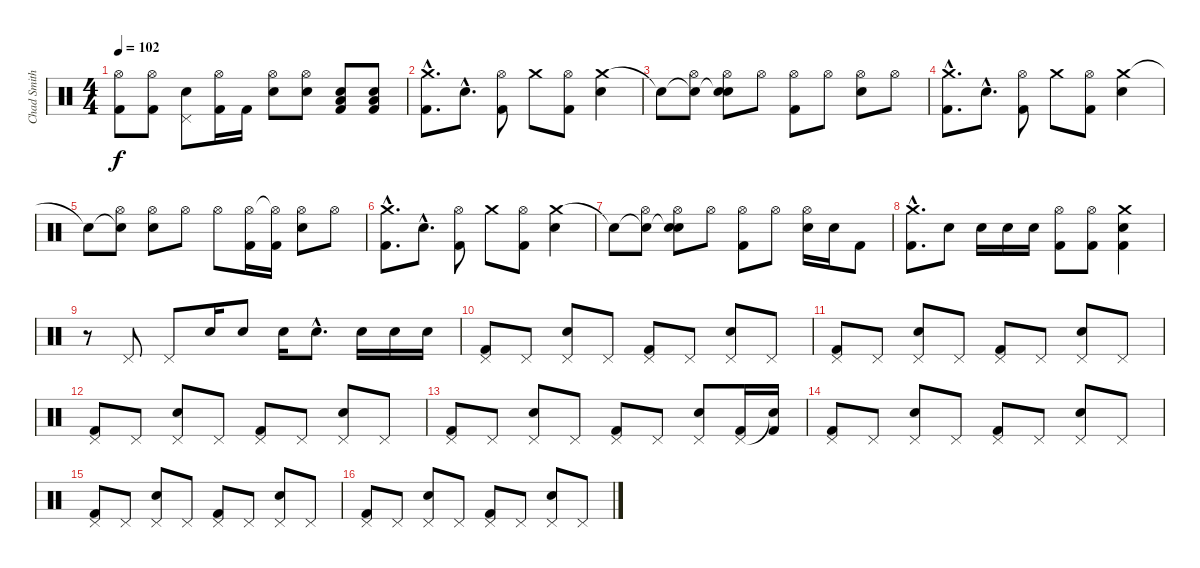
\track ("Chad Smith (Batterie)" "Chad Smith") {instrument percussion}
\staff {score}
\articulation defaults
\ts (4 4)
\tempo 102
\clef neutral
\ks c
("Hi-Hat (open)" "Kick (hit) 2").8{dy f} ("Hi-Hat (open)" "Kick (hit) 2").8 ("Pedal Hi-Hat (hit)" "Electric Snare (hit)").8 ("Hi-Hat (open)" "Kick (hit) 2").16 "Kick (hit) 2".16 ("Hi-Hat (open)" "Electric Snare (hit)").8 ("Hi-Hat (open)" "Electric Snare (hit)").8 ("Low Tom (hit)" "Electric Snare (hit)" "Kick (hit) 2").8 ("Low Tom (hit)" "Electric Snare (hit)" "Kick (hit) 2").8 |
("Crash medium (hit)"{hac} "Kick (hit) 2"{hac}).8{d} "Electric Snare (hit)"{hac}.8{d} ("Hi-Hat (open)" "Kick (hit) 2").8 "Crash medium (hit)".8 ("Hi-Hat (open)" "Kick (hit) 2").8 ("Crash medium (hit)" "Electric Snare (hit)").4 |
"Snare (hit)"{t}.8 ("Snare (hit)"{t} "Hi-Hat (open)").8 ("Snare (hit)"{t} "Hi-Hat (open)" "Electric Snare (hit)").8 "Hi-Hat (open)".8 ("Hi-Hat (open)" "Kick (hit) 2").8 "Hi-Hat (open)".8 ("Hi-Hat (open)" "Electric Snare (hit)").8 "Hi-Hat (open)".8 |
("Crash medium (hit)"{hac} "Kick (hit) 2"{hac}).8{d} "Electric Snare (hit)"{hac}.8{d} ("Hi-Hat (open)" "Kick (hit) 2").8 "Crash medium (hit)".8 ("Hi-Hat (open)" "Kick (hit) 2").8 ("Crash medium (hit)" "Electric Snare (hit)").4 |
"Snare (hit)"{t}.8 ("Snare (hit)"{t} "Hi-Hat (open)").8 ("Hi-Hat (open)" "Electric Snare (hit)").8 "Hi-Hat (open)".8 "Hi-Hat (open)".8 ("Hi-Hat (open)" "Kick (hit) 2").16 ("Hi-Hat (open)"{t} "Kick (hit) 2").16 ("Hi-Hat (open)" "Electric Snare (hit)").8 "Hi-Hat (open)".8 |
("Crash medium (hit)"{hac} "Kick (hit) 2"{hac}).8{d} "Electric Snare (hit)"{hac}.8{d} ("Hi-Hat (open)" "Kick (hit) 2").8 "Crash medium (hit)".8 ("Hi-Hat (open)" "Kick (hit) 2").8 ("Crash medium (hit)" "Electric Snare (hit)").4 |
"Snare (hit)"{t}.8 ("Snare (hit)"{t} "Hi-Hat (open)").8 ("Snare (hit)"{t} "Hi-Hat (open)" "Electric Snare (hit)").8 "Hi-Hat (open)".8 ("Hi-Hat (open)" "Kick (hit) 2").8 "Hi-Hat (open)".8 ("Hi-Hat (open)" "Electric Snare (hit)").16 "Electric Snare (hit)".16 "Kick (hit) 2".8 |
("Crash medium (hit)"{hac} "Kick (hit) 2"{hac}).8{d} "Electric Snare (hit)".8 "Electric Snare (hit)".16 "Electric Snare (hit)".16 "Electric Snare (hit)".16 ("Hi-Hat (open)" "Kick (hit) 2").8 ("Hi-Hat (open)" "Kick (hit) 2").8 ("Crash medium (hit)" "Electric Snare (hit)" "Kick (hit) 2").4 |
r.8 "Pedal Hi-Hat (hit)".8 "Pedal Hi-Hat (hit)".8 "Electric Snare (hit)".16 "Electric Snare (hit)".8 "Electric Snare (hit)".16 "Electric Snare (hit)"{hac}.8{d} "Electric Snare (hit)".16 "Electric Snare (hit)".16 "Electric Snare (hit)".16 |
("Pedal Hi-Hat (hit)" "Kick (hit) 2").8 "Pedal Hi-Hat (hit)".8 ("Pedal Hi-Hat (hit)" "Electric Snare (hit)").8 "Pedal Hi-Hat (hit)".8 ("Pedal Hi-Hat (hit)" "Kick (hit) 2").8 "Pedal Hi-Hat (hit)".8 ("Pedal Hi-Hat (hit)" "Electric Snare (hit)").8 "Pedal Hi-Hat (hit)".8 |
("Pedal Hi-Hat (hit)" "Kick (hit) 2").8 "Pedal Hi-Hat (hit)".8 ("Pedal Hi-Hat (hit)" "Electric Snare (hit)").8 "Pedal Hi-Hat (hit)".8 ("Pedal Hi-Hat (hit)" "Kick (hit) 2").8 "Pedal Hi-Hat (hit)".8 ("Pedal Hi-Hat (hit)" "Electric Snare (hit)").8 "Pedal Hi-Hat (hit)".8 |
("Pedal Hi-Hat (hit)" "Kick (hit) 2").8 "Pedal Hi-Hat (hit)".8 ("Pedal Hi-Hat (hit)" "Electric Snare (hit)").8 "Pedal Hi-Hat (hit)".8 ("Pedal Hi-Hat (hit)" "Kick (hit) 2").8 "Pedal Hi-Hat (hit)".8 ("Pedal Hi-Hat (hit)" "Electric Snare (hit)").8 "Pedal Hi-Hat (hit)".8 |
("Pedal Hi-Hat (hit)" "Kick (hit) 2").8 "Pedal Hi-Hat (hit)".8 ("Pedal Hi-Hat (hit)" "Electric Snare (hit)").8 "Pedal Hi-Hat (hit)".8 ("Pedal Hi-Hat (hit)" "Kick (hit) 2").8 "Pedal Hi-Hat (hit)".8 ("Pedal Hi-Hat (hit)" "Electric Snare (hit)").8 ("Pedal Hi-Hat (hit)" "Kick (hit) 2").16 ("Snare (hit)"{t} "Kick (hit) 2").16 |
("Pedal Hi-Hat (hit)" "Kick (hit) 2").8 "Pedal Hi-Hat (hit)".8 ("Pedal Hi-Hat (hit)" "Electric Snare (hit)").8 "Pedal Hi-Hat (hit)".8 ("Pedal Hi-Hat (hit)" "Kick (hit) 2").8 "Pedal Hi-Hat (hit)".8 ("Pedal Hi-Hat (hit)" "Electric Snare (hit)").8 "Pedal Hi-Hat (hit)".8 |
("Pedal Hi-Hat (hit)" "Kick (hit) 2").8 "Pedal Hi-Hat (hit)".8 ("Pedal Hi-Hat (hit)" "Electric Snare (hit)").8 "Pedal Hi-Hat (hit)".8 ("Pedal Hi-Hat (hit)" "Kick (hit) 2").8 "Pedal Hi-Hat (hit)".8 ("Pedal Hi-Hat (hit)" "Electric Snare (hit)").8 "Pedal Hi-Hat (hit)".8 |
("Pedal Hi-Hat (hit)" "Kick (hit) 2").8 "Pedal Hi-Hat (hit)".8 ("Pedal Hi-Hat (hit)" "Electric Snare (hit)").8 "Pedal Hi-Hat (hit)".8 ("Pedal Hi-Hat (hit)" "Kick (hit) 2").8 "Pedal Hi-Hat (hit)".8 ("Pedal Hi-Hat (hit)" "Electric Snare (hit)").8 "Pedal Hi-Hat (hit)".8
